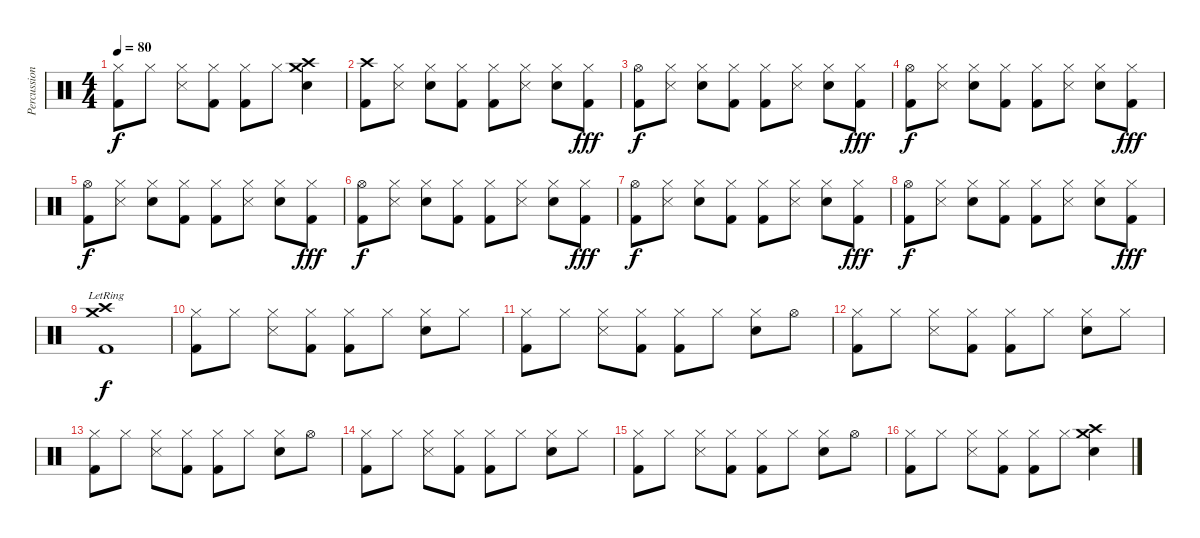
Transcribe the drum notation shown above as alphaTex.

\track ("Percussion" "Percussion") {instrument percussion}
\staff {score}
\articulation defaults
\ts (4 4)
\tempo 80
\clef neutral
\ks c
("Hi-Hat (closed)" "Kick (hit) 2").8{dy f} "Hi-Hat (closed)".8 ("Hi-Hat (closed)" "Snare (side stick) 3").8 ("Hi-Hat (closed)" "Kick (hit) 2").8 ("Hi-Hat (closed)" "Kick (hit) 2").8 "Hi-Hat (closed)".8 ("Crash medium (hit)" "Crash high (hit)" "Snare (hit) 2").4 |
("Crash high (hit)" "Kick (hit) 2").8 ("Hi-Hat (closed)" "Snare (side stick) 3").8 ("Hi-Hat (closed)" "Snare (hit) 2").8 ("Hi-Hat (closed)" "Kick (hit) 2").8 ("Hi-Hat (closed)" "Kick (hit) 2").8 ("Hi-Hat (closed)" "Snare (side stick) 3").8 ("Hi-Hat (closed)" "Snare (hit) 2").8 ("Hi-Hat (closed)" "Kick (hit) 2").8{dy fff} |
("Hi-Hat (open)" "Kick (hit) 2").8{dy f} ("Hi-Hat (closed)" "Snare (side stick) 3").8 ("Hi-Hat (closed)" "Snare (hit) 2").8 ("Hi-Hat (closed)" "Kick (hit) 2").8 ("Hi-Hat (closed)" "Kick (hit) 2").8 ("Hi-Hat (closed)" "Snare (side stick) 3").8 ("Hi-Hat (closed)" "Snare (hit) 2").8 ("Hi-Hat (closed)" "Kick (hit) 2").8{dy fff} |
("Hi-Hat (open)" "Kick (hit) 2").8{dy f} ("Hi-Hat (closed)" "Snare (side stick) 3").8 ("Hi-Hat (closed)" "Snare (hit) 2").8 ("Hi-Hat (closed)" "Kick (hit) 2").8 ("Hi-Hat (closed)" "Kick (hit) 2").8 ("Hi-Hat (closed)" "Snare (side stick) 3").8 ("Hi-Hat (closed)" "Snare (hit) 2").8 ("Hi-Hat (closed)" "Kick (hit) 2").8{dy fff} |
("Hi-Hat (open)" "Kick (hit) 2").8{dy f} ("Hi-Hat (closed)" "Snare (side stick) 3").8 ("Hi-Hat (closed)" "Snare (hit) 2").8 ("Hi-Hat (closed)" "Kick (hit) 2").8 ("Hi-Hat (closed)" "Kick (hit) 2").8 ("Hi-Hat (closed)" "Snare (side stick) 3").8 ("Hi-Hat (closed)" "Snare (hit) 2").8 ("Hi-Hat (closed)" "Kick (hit) 2").8{dy fff} |
("Hi-Hat (open)" "Kick (hit) 2").8{dy f} ("Hi-Hat (closed)" "Snare (side stick) 3").8 ("Hi-Hat (closed)" "Snare (hit) 2").8 ("Hi-Hat (closed)" "Kick (hit) 2").8 ("Hi-Hat (closed)" "Kick (hit) 2").8 ("Hi-Hat (closed)" "Snare (side stick) 3").8 ("Hi-Hat (closed)" "Snare (hit) 2").8 ("Hi-Hat (closed)" "Kick (hit) 2").8{dy fff} |
("Hi-Hat (open)" "Kick (hit) 2").8{dy f} ("Hi-Hat (closed)" "Snare (side stick) 3").8 ("Hi-Hat (closed)" "Snare (hit) 2").8 ("Hi-Hat (closed)" "Kick (hit) 2").8 ("Hi-Hat (closed)" "Kick (hit) 2").8 ("Hi-Hat (closed)" "Snare (side stick) 3").8 ("Hi-Hat (closed)" "Snare (hit) 2").8 ("Hi-Hat (closed)" "Kick (hit) 2").8{dy fff} |
("Hi-Hat (open)" "Kick (hit) 2").8{dy f} ("Hi-Hat (closed)" "Snare (side stick) 3").8 ("Hi-Hat (closed)" "Snare (hit) 2").8 ("Hi-Hat (closed)" "Kick (hit) 2").8 ("Hi-Hat (closed)" "Kick (hit) 2").8 ("Hi-Hat (closed)" "Snare (side stick) 3").8 ("Hi-Hat (closed)" "Snare (hit) 2").8 ("Hi-Hat (closed)" "Kick (hit) 2").8{dy fff} |
("Crash high (hit)"{lr} "Crash medium (hit)"{lr} "Kick (hit) 2").1{dy f} |
("Hi-Hat (closed)" "Kick (hit) 2").8 "Hi-Hat (closed)".8 ("Hi-Hat (closed)" "Snare (side stick) 3").8 ("Hi-Hat (closed)" "Kick (hit) 2").8 ("Hi-Hat (closed)" "Kick (hit) 2").8 "Hi-Hat (closed)".8 ("Hi-Hat (closed)" "Snare (hit) 2").8 "Hi-Hat (closed)".8 |
("Hi-Hat (closed)" "Kick (hit) 2").8 "Hi-Hat (closed)".8 ("Hi-Hat (closed)" "Snare (side stick) 3").8 ("Hi-Hat (closed)" "Kick (hit) 2").8 ("Hi-Hat (closed)" "Kick (hit) 2").8 "Hi-Hat (closed)".8 ("Hi-Hat (closed)" "Snare (hit) 2").8 "Hi-Hat (open)".8 |
("Hi-Hat (closed)" "Kick (hit) 2").8 "Hi-Hat (closed)".8 ("Hi-Hat (closed)" "Snare (side stick) 3").8 ("Hi-Hat (closed)" "Kick (hit) 2").8 ("Hi-Hat (closed)" "Kick (hit) 2").8 "Hi-Hat (closed)".8 ("Hi-Hat (closed)" "Snare (hit) 2").8 "Hi-Hat (closed)".8 |
("Hi-Hat (closed)" "Kick (hit) 2").8 "Hi-Hat (closed)".8 ("Hi-Hat (closed)" "Snare (side stick) 3").8 ("Hi-Hat (closed)" "Kick (hit) 2").8 ("Hi-Hat (closed)" "Kick (hit) 2").8 "Hi-Hat (closed)".8 ("Hi-Hat (closed)" "Snare (hit) 2").8 "Hi-Hat (open)".8 |
("Hi-Hat (closed)" "Kick (hit) 2").8 "Hi-Hat (closed)".8 ("Hi-Hat (closed)" "Snare (side stick) 3").8 ("Hi-Hat (closed)" "Kick (hit) 2").8 ("Hi-Hat (closed)" "Kick (hit) 2").8 "Hi-Hat (closed)".8 ("Hi-Hat (closed)" "Snare (hit) 2").8 "Hi-Hat (closed)".8 |
("Hi-Hat (closed)" "Kick (hit) 2").8 "Hi-Hat (closed)".8 ("Hi-Hat (closed)" "Snare (side stick) 3").8 ("Hi-Hat (closed)" "Kick (hit) 2").8 ("Hi-Hat (closed)" "Kick (hit) 2").8 "Hi-Hat (closed)".8 ("Hi-Hat (closed)" "Snare (hit) 2").8 "Hi-Hat (open)".8 |
("Hi-Hat (closed)" "Kick (hit) 2").8 "Hi-Hat (closed)".8 ("Hi-Hat (closed)" "Snare (side stick) 3").8 ("Hi-Hat (closed)" "Kick (hit) 2").8 ("Hi-Hat (closed)" "Kick (hit) 2").8 "Hi-Hat (closed)".8 ("Crash medium (hit)" "Crash high (hit)" "Snare (hit) 2").4
